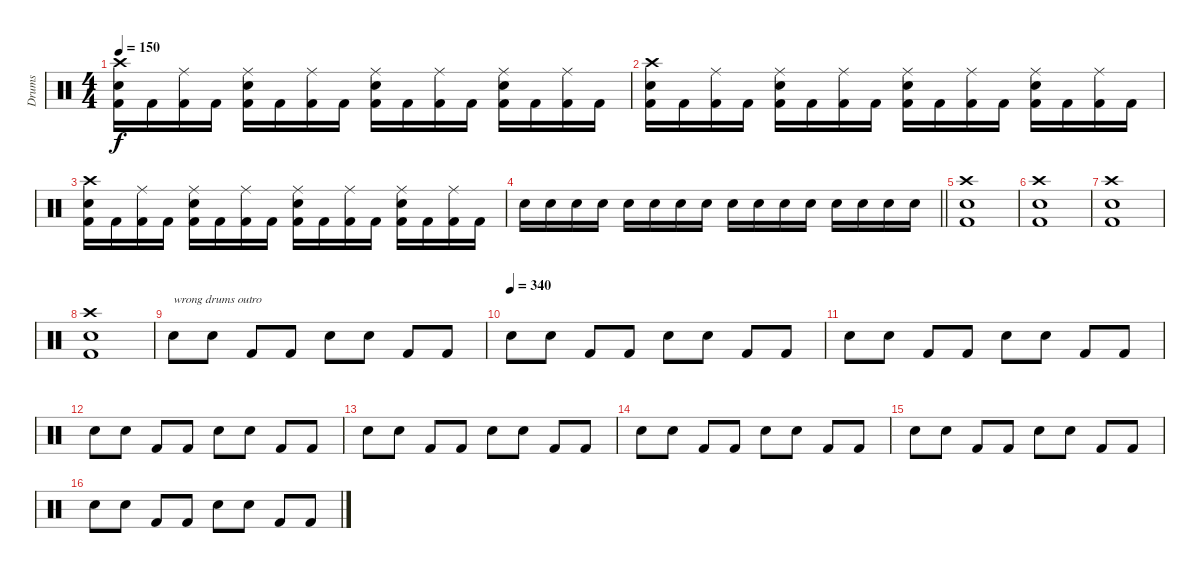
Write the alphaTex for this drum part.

\track ("Drums" "Drums") {instrument percussion}
\staff {score}
\articulation defaults
\ts (4 4)
\tempo 150
\clef neutral
\ks c
("Kick (hit) 2" "Snare (hit) 2" "Crash high (hit)").16{dy f} "Kick (hit) 2".16 ("Kick (hit) 2" "Ride (middle)").16 "Kick (hit) 2".16 ("Kick (hit) 2" "Snare (hit) 2" "Ride (middle)").16 "Kick (hit) 2".16 ("Kick (hit) 2" "Ride (middle)").16 "Kick (hit) 2".16 ("Kick (hit) 2" "Snare (hit) 2" "Ride (middle)").16 "Kick (hit) 2".16 ("Kick (hit) 2" "Ride (middle)").16 "Kick (hit) 2".16 ("Kick (hit) 2" "Snare (hit) 2" "Ride (middle)").16 "Kick (hit) 2".16 ("Kick (hit) 2" "Ride (middle)").16 "Kick (hit) 2".16 |
("Kick (hit) 2" "Snare (hit) 2" "Crash high (hit)").16 "Kick (hit) 2".16 ("Kick (hit) 2" "Ride (middle)").16 "Kick (hit) 2".16 ("Kick (hit) 2" "Snare (hit) 2" "Ride (middle)").16 "Kick (hit) 2".16 ("Kick (hit) 2" "Ride (middle)").16 "Kick (hit) 2".16 ("Kick (hit) 2" "Snare (hit) 2" "Ride (middle)").16 "Kick (hit) 2".16 ("Kick (hit) 2" "Ride (middle)").16 "Kick (hit) 2".16 ("Kick (hit) 2" "Snare (hit) 2" "Ride (middle)").16 "Kick (hit) 2".16 ("Kick (hit) 2" "Ride (middle)").16 "Kick (hit) 2".16 |
("Kick (hit) 2" "Snare (hit) 2" "Crash high (hit)").16 "Kick (hit) 2".16 ("Kick (hit) 2" "Ride (middle)").16 "Kick (hit) 2".16 ("Kick (hit) 2" "Snare (hit) 2" "Ride (middle)").16 "Kick (hit) 2".16 ("Kick (hit) 2" "Ride (middle)").16 "Kick (hit) 2".16 ("Kick (hit) 2" "Snare (hit) 2" "Ride (middle)").16 "Kick (hit) 2".16 ("Kick (hit) 2" "Ride (middle)").16 "Kick (hit) 2".16 ("Kick (hit) 2" "Snare (hit) 2" "Ride (middle)").16 "Kick (hit) 2".16 ("Kick (hit) 2" "Ride (middle)").16 "Kick (hit) 2".16 |
\barLineRight lightlight "Snare (hit) 2".16 "Snare (hit) 2".16 "Snare (hit) 2".16 "Snare (hit) 2".16 "Snare (hit) 2".16 "Snare (hit) 2".16 "Snare (hit) 2".16 "Snare (hit) 2".16 "Snare (hit) 2".16 "Snare (hit) 2".16 "Snare (hit) 2".16 "Snare (hit) 2".16 "Snare (hit) 2".16 "Snare (hit) 2".16 "Snare (hit) 2".16 "Snare (hit) 2".16
|
("Crash high (hit)" "Snare (hit) 2" "Kick (hit) 2").1 |
("Crash high (hit)" "Snare (hit) 2" "Kick (hit) 2").1 |
("Crash high (hit)" "Snare (hit) 2" "Kick (hit) 2").1 |
("Crash high (hit)" "Snare (hit) 2" "Kick (hit) 2").1 |
"Electric Snare (hit)".8{txt "wrong drums outro"} "Electric Snare (hit)".8 "Kick (hit) 2".8 "Kick (hit) 2".8 "Snare (hit) 2".8 "Snare (hit) 2".8 "Kick (hit) 2".8 "Kick (hit) 2".8 |
\tempo (340)
"Electric Snare (hit)".8 "Electric Snare (hit)".8 "Kick (hit) 2".8 "Kick (hit) 2".8 "Snare (hit) 2".8 "Snare (hit) 2".8 "Kick (hit) 2".8 "Kick (hit) 2".8 |
"Electric Snare (hit)".8 "Electric Snare (hit)".8 "Kick (hit) 2".8 "Kick (hit) 2".8 "Snare (hit) 2".8 "Snare (hit) 2".8 "Kick (hit) 2".8 "Kick (hit) 2".8 |
"Electric Snare (hit)".8 "Electric Snare (hit)".8 "Kick (hit) 2".8 "Kick (hit) 2".8 "Snare (hit) 2".8 "Snare (hit) 2".8 "Kick (hit) 2".8 "Kick (hit) 2".8 |
"Electric Snare (hit)".8 "Electric Snare (hit)".8 "Kick (hit) 2".8 "Kick (hit) 2".8 "Snare (hit) 2".8 "Snare (hit) 2".8 "Kick (hit) 2".8 "Kick (hit) 2".8 |
"Electric Snare (hit)".8 "Electric Snare (hit)".8 "Kick (hit) 2".8 "Kick (hit) 2".8 "Snare (hit) 2".8 "Snare (hit) 2".8 "Kick (hit) 2".8 "Kick (hit) 2".8 |
"Electric Snare (hit)".8 "Electric Snare (hit)".8 "Kick (hit) 2".8 "Kick (hit) 2".8 "Snare (hit) 2".8 "Snare (hit) 2".8 "Kick (hit) 2".8 "Kick (hit) 2".8 |
"Electric Snare (hit)".8 "Electric Snare (hit)".8 "Kick (hit) 2".8 "Kick (hit) 2".8 "Snare (hit) 2".8 "Snare (hit) 2".8 "Kick (hit) 2".8 "Kick (hit) 2".8
